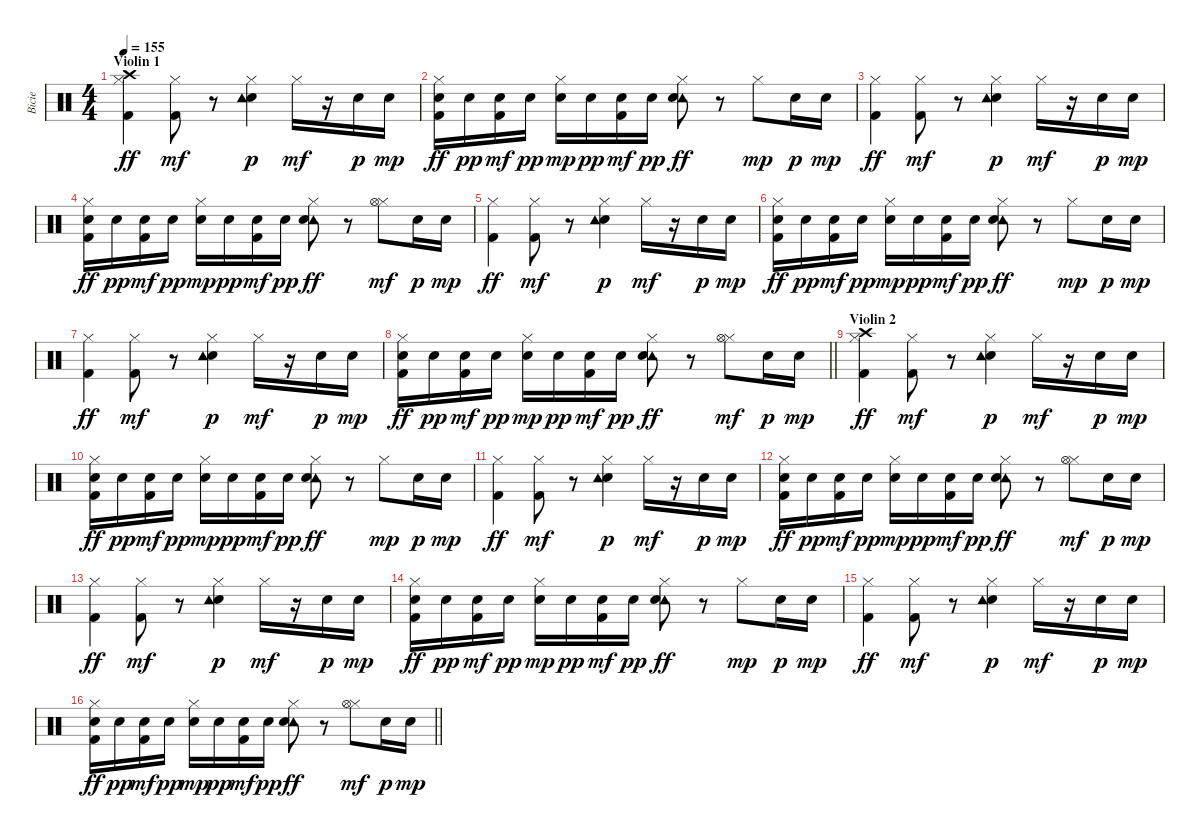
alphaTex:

\track ("Bicie" "Bicie") {instrument percussion}
\staff {score}
\articulation defaults
\ts (4 4)
\section ("" "Violin 1")
\tempo 155
\clef neutral
\ks c
("Hi-Hat (closed)" "Crash high (hit)" "Kick (hit) 2").4{dy ff} ("Hi-Hat (closed)" "Kick (hit) 2").8{dy mf} r.8 ("Hi-Hat (closed)" "Electric Snare (hit)" "Tambourine (hit)").4{dy p} "Hi-Hat (closed)".16{dy mf} r.16 "Electric Snare (hit)".16{dy p} "Electric Snare (hit)".16{dy mp} |
("Hi-Hat (closed)" "Electric Snare (hit)" "Kick (hit) 2").16{dy ff} "Electric Snare (hit)".16{dy pp} ("Electric Snare (hit)" "Kick (hit) 2").16{dy mf} "Electric Snare (hit)".16{dy pp} ("Hi-Hat (closed)" "Electric Snare (hit)").16{dy mp} "Electric Snare (hit)".16{dy pp} ("Electric Snare (hit)" "Kick (hit) 2").16{dy mf} "Electric Snare (hit)".16{dy pp} ("Hi-Hat (closed)" "Tambourine (hit)" "Electric Snare (hit)").8{dy ff} r.8 "Hi-Hat (closed)".8{dy mp} "Electric Snare (hit)".16{dy p} "Electric Snare (hit)".16{dy mp} |
("Hi-Hat (closed)" "Kick (hit) 2").4{dy ff} ("Hi-Hat (closed)" "Kick (hit) 2").8{dy mf} r.8 ("Hi-Hat (closed)" "Electric Snare (hit)" "Tambourine (hit)").4{dy p} "Hi-Hat (closed)".16{dy mf} r.16 "Electric Snare (hit)".16{dy p} "Electric Snare (hit)".16{dy mp} |
("Hi-Hat (closed)" "Electric Snare (hit)" "Kick (hit) 2").16{dy ff} "Electric Snare (hit)".16{dy pp} ("Electric Snare (hit)" "Kick (hit) 2").16{dy mf} "Electric Snare (hit)".16{dy pp} ("Hi-Hat (closed)" "Electric Snare (hit)").16{dy mp} "Electric Snare (hit)".16{dy pp} ("Electric Snare (hit)" "Kick (hit) 2").16{dy mf} "Electric Snare (hit)".16{dy pp} ("Hi-Hat (closed)" "Tambourine (hit)" "Electric Snare (hit)").8{dy ff} r.8 ("Hi-Hat (closed)" "Hi-Hat (open)").8{dy mf} "Electric Snare (hit)".16{dy p} "Electric Snare (hit)".16{dy mp} |
("Hi-Hat (closed)" "Kick (hit) 2").4{dy ff} ("Hi-Hat (closed)" "Kick (hit) 2").8{dy mf} r.8 ("Hi-Hat (closed)" "Electric Snare (hit)" "Tambourine (hit)").4{dy p} "Hi-Hat (closed)".16{dy mf} r.16 "Electric Snare (hit)".16{dy p} "Electric Snare (hit)".16{dy mp} |
("Hi-Hat (closed)" "Electric Snare (hit)" "Kick (hit) 2").16{dy ff} "Electric Snare (hit)".16{dy pp} ("Electric Snare (hit)" "Kick (hit) 2").16{dy mf} "Electric Snare (hit)".16{dy pp} ("Hi-Hat (closed)" "Electric Snare (hit)").16{dy mp} "Electric Snare (hit)".16{dy pp} ("Electric Snare (hit)" "Kick (hit) 2").16{dy mf} "Electric Snare (hit)".16{dy pp} ("Hi-Hat (closed)" "Tambourine (hit)" "Electric Snare (hit)").8{dy ff} r.8 "Hi-Hat (closed)".8{dy mp} "Electric Snare (hit)".16{dy p} "Electric Snare (hit)".16{dy mp} |
("Hi-Hat (closed)" "Kick (hit) 2").4{dy ff} ("Hi-Hat (closed)" "Kick (hit) 2").8{dy mf} r.8 ("Hi-Hat (closed)" "Electric Snare (hit)" "Tambourine (hit)").4{dy p} "Hi-Hat (closed)".16{dy mf} r.16 "Electric Snare (hit)".16{dy p} "Electric Snare (hit)".16{dy mp} |
\barLineRight lightlight
("Hi-Hat (closed)" "Electric Snare (hit)" "Kick (hit) 2").16{dy ff} "Electric Snare (hit)".16{dy pp} ("Electric Snare (hit)" "Kick (hit) 2").16{dy mf} "Electric Snare (hit)".16{dy pp} ("Hi-Hat (closed)" "Electric Snare (hit)").16{dy mp} "Electric Snare (hit)".16{dy pp} ("Electric Snare (hit)" "Kick (hit) 2").16{dy mf} "Electric Snare (hit)".16{dy pp} ("Hi-Hat (closed)" "Tambourine (hit)" "Electric Snare (hit)").8{dy ff} r.8 ("Hi-Hat (closed)" "Hi-Hat (open)").8{dy mf} "Electric Snare (hit)".16{dy p} "Electric Snare (hit)".16{dy mp} |
\section ("" "Violin 2")
("Hi-Hat (closed)" "Crash high (hit)" "Kick (hit) 2").4{dy ff} ("Hi-Hat (closed)" "Kick (hit) 2").8{dy mf} r.8 ("Hi-Hat (closed)" "Electric Snare (hit)" "Tambourine (hit)").4{dy p} "Hi-Hat (closed)".16{dy mf} r.16 "Electric Snare (hit)".16{dy p} "Electric Snare (hit)".16{dy mp} |
("Hi-Hat (closed)" "Electric Snare (hit)" "Kick (hit) 2").16{dy ff} "Electric Snare (hit)".16{dy pp} ("Electric Snare (hit)" "Kick (hit) 2").16{dy mf} "Electric Snare (hit)".16{dy pp} ("Hi-Hat (closed)" "Electric Snare (hit)").16{dy mp} "Electric Snare (hit)".16{dy pp} ("Electric Snare (hit)" "Kick (hit) 2").16{dy mf} "Electric Snare (hit)".16{dy pp} ("Hi-Hat (closed)" "Tambourine (hit)" "Electric Snare (hit)").8{dy ff} r.8 "Hi-Hat (closed)".8{dy mp} "Electric Snare (hit)".16{dy p} "Electric Snare (hit)".16{dy mp} |
("Hi-Hat (closed)" "Kick (hit) 2").4{dy ff} ("Hi-Hat (closed)" "Kick (hit) 2").8{dy mf} r.8 ("Hi-Hat (closed)" "Electric Snare (hit)" "Tambourine (hit)").4{dy p} "Hi-Hat (closed)".16{dy mf} r.16 "Electric Snare (hit)".16{dy p} "Electric Snare (hit)".16{dy mp} |
("Hi-Hat (closed)" "Electric Snare (hit)" "Kick (hit) 2").16{dy ff} "Electric Snare (hit)".16{dy pp} ("Electric Snare (hit)" "Kick (hit) 2").16{dy mf} "Electric Snare (hit)".16{dy pp} ("Hi-Hat (closed)" "Electric Snare (hit)").16{dy mp} "Electric Snare (hit)".16{dy pp} ("Electric Snare (hit)" "Kick (hit) 2").16{dy mf} "Electric Snare (hit)".16{dy pp} ("Hi-Hat (closed)" "Tambourine (hit)" "Electric Snare (hit)").8{dy ff} r.8 ("Hi-Hat (closed)" "Hi-Hat (open)").8{dy mf} "Electric Snare (hit)".16{dy p} "Electric Snare (hit)".16{dy mp} |
("Hi-Hat (closed)" "Kick (hit) 2").4{dy ff} ("Hi-Hat (closed)" "Kick (hit) 2").8{dy mf} r.8 ("Hi-Hat (closed)" "Electric Snare (hit)" "Tambourine (hit)").4{dy p} "Hi-Hat (closed)".16{dy mf} r.16 "Electric Snare (hit)".16{dy p} "Electric Snare (hit)".16{dy mp} |
("Hi-Hat (closed)" "Electric Snare (hit)" "Kick (hit) 2").16{dy ff} "Electric Snare (hit)".16{dy pp} ("Electric Snare (hit)" "Kick (hit) 2").16{dy mf} "Electric Snare (hit)".16{dy pp} ("Hi-Hat (closed)" "Electric Snare (hit)").16{dy mp} "Electric Snare (hit)".16{dy pp} ("Electric Snare (hit)" "Kick (hit) 2").16{dy mf} "Electric Snare (hit)".16{dy pp} ("Hi-Hat (closed)" "Tambourine (hit)" "Electric Snare (hit)").8{dy ff} r.8 "Hi-Hat (closed)".8{dy mp} "Electric Snare (hit)".16{dy p} "Electric Snare (hit)".16{dy mp} |
("Hi-Hat (closed)" "Kick (hit) 2").4{dy ff} ("Hi-Hat (closed)" "Kick (hit) 2").8{dy mf} r.8 ("Hi-Hat (closed)" "Electric Snare (hit)" "Tambourine (hit)").4{dy p} "Hi-Hat (closed)".16{dy mf} r.16 "Electric Snare (hit)".16{dy p} "Electric Snare (hit)".16{dy mp} |
\barLineRight lightlight
("Hi-Hat (closed)" "Electric Snare (hit)" "Kick (hit) 2").16{dy ff} "Electric Snare (hit)".16{dy pp} ("Electric Snare (hit)" "Kick (hit) 2").16{dy mf} "Electric Snare (hit)".16{dy pp} ("Hi-Hat (closed)" "Electric Snare (hit)").16{dy mp} "Electric Snare (hit)".16{dy pp} ("Electric Snare (hit)" "Kick (hit) 2").16{dy mf} "Electric Snare (hit)".16{dy pp} ("Hi-Hat (closed)" "Tambourine (hit)" "Electric Snare (hit)").8{dy ff} r.8 ("Hi-Hat (closed)" "Hi-Hat (open)").8{dy mf} "Electric Snare (hit)".16{dy p} "Electric Snare (hit)".16{dy mp}
